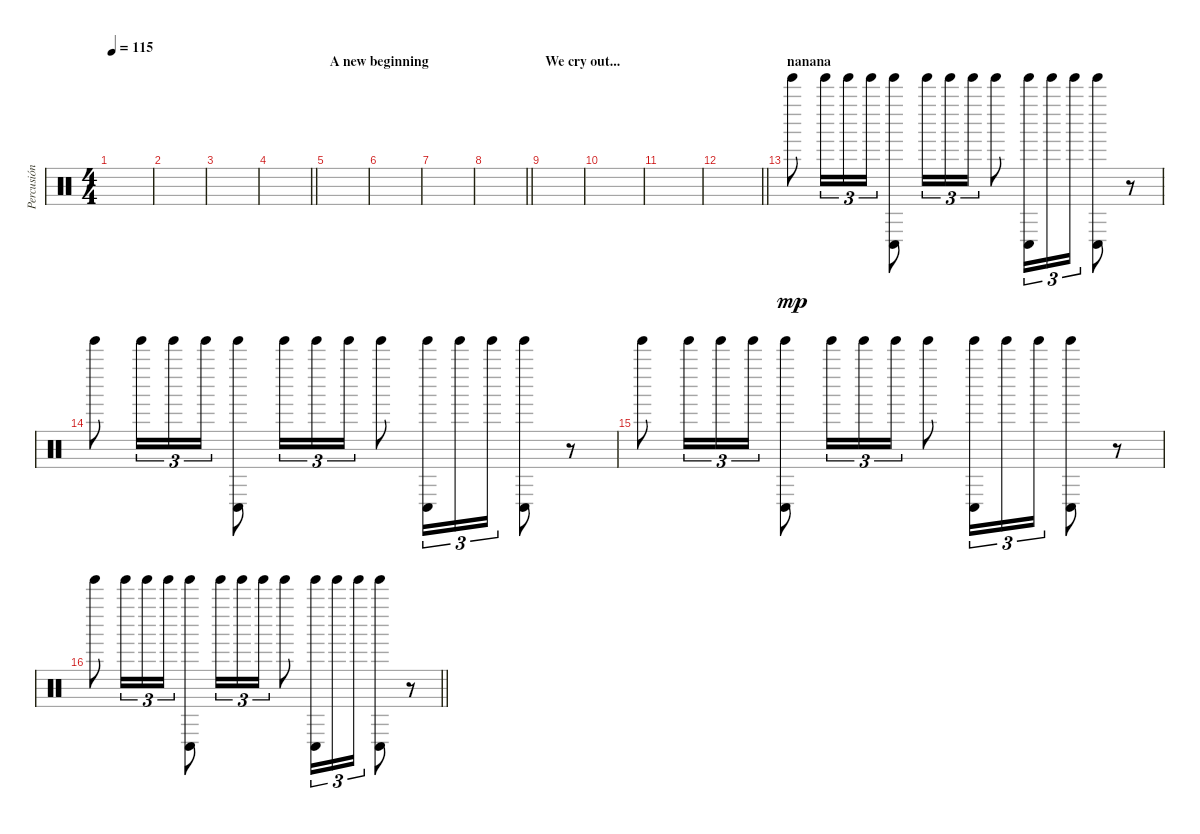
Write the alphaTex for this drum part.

\track ("Percusión" "Percusión") {instrument percussion}
\staff {score}
\articulation defaults
\ts (4 4)
\section ("" "")
\tempo 115
\clef neutral
\ks c
|
|
|
\barLineRight lightlight
|
\section ("" "A new beginning")
|
|
|
\barLineRight lightlight
|
\section ("" "We cry out...")
|
|
|
\barLineRight lightlight
|
\section ("" "nanana")
"Tinkle Bell (hit)".8{dy mp} "Tinkle Bell (hit)".16{tu (3 2)} "Tinkle Bell (hit)".16{tu (3 2)} "Tinkle Bell (hit)".16{tu (3 2)} ("Tinkle Bell (hit)" "Conga low (hit)").8 "Tinkle Bell (hit)".16{tu (3 2)} "Tinkle Bell (hit)".16{tu (3 2)} "Tinkle Bell (hit)".16{tu (3 2)} "Tinkle Bell (hit)".8 ("Tinkle Bell (hit)" "Conga low (hit)").16{tu (3 2)} "Tinkle Bell (hit)".16{tu (3 2)} "Tinkle Bell (hit)".16{tu (3 2)} ("Tinkle Bell (hit)" "Conga low (hit)").8 r.8 |
"Tinkle Bell (hit)".8 "Tinkle Bell (hit)".16{tu (3 2)} "Tinkle Bell (hit)".16{tu (3 2)} "Tinkle Bell (hit)".16{tu (3 2)} ("Tinkle Bell (hit)" "Conga low (hit)").8 "Tinkle Bell (hit)".16{tu (3 2)} "Tinkle Bell (hit)".16{tu (3 2)} "Tinkle Bell (hit)".16{tu (3 2)} "Tinkle Bell (hit)".8 ("Tinkle Bell (hit)" "Conga low (hit)").16{tu (3 2)} "Tinkle Bell (hit)".16{tu (3 2)} "Tinkle Bell (hit)".16{tu (3 2)} ("Tinkle Bell (hit)" "Conga low (hit)").8 r.8 |
"Tinkle Bell (hit)".8 "Tinkle Bell (hit)".16{tu (3 2)} "Tinkle Bell (hit)".16{tu (3 2)} "Tinkle Bell (hit)".16{tu (3 2)} ("Tinkle Bell (hit)" "Conga low (hit)").8 "Tinkle Bell (hit)".16{tu (3 2)} "Tinkle Bell (hit)".16{tu (3 2)} "Tinkle Bell (hit)".16{tu (3 2)} "Tinkle Bell (hit)".8 ("Tinkle Bell (hit)" "Conga low (hit)").16{tu (3 2)} "Tinkle Bell (hit)".16{tu (3 2)} "Tinkle Bell (hit)".16{tu (3 2)} ("Tinkle Bell (hit)" "Conga low (hit)").8 r.8 |
\barLineRight lightlight "Tinkle Bell (hit)".8 "Tinkle Bell (hit)".16{tu (3 2)} "Tinkle Bell (hit)".16{tu (3 2)} "Tinkle Bell (hit)".16{tu (3 2)}
("Tinkle Bell (hit)" "Conga low (hit)").8 "Tinkle Bell (hit)".16{tu (3 2)} "Tinkle Bell (hit)".16{tu (3 2)} "Tinkle Bell (hit)".16{tu (3 2)} "Tinkle Bell (hit)".8 ("Tinkle Bell (hit)" "Conga low (hit)").16{tu (3 2)} "Tinkle Bell (hit)".16{tu (3 2)} "Tinkle Bell (hit)".16{tu (3 2)} ("Tinkle Bell (hit)" "Conga low (hit)").8 r.8
